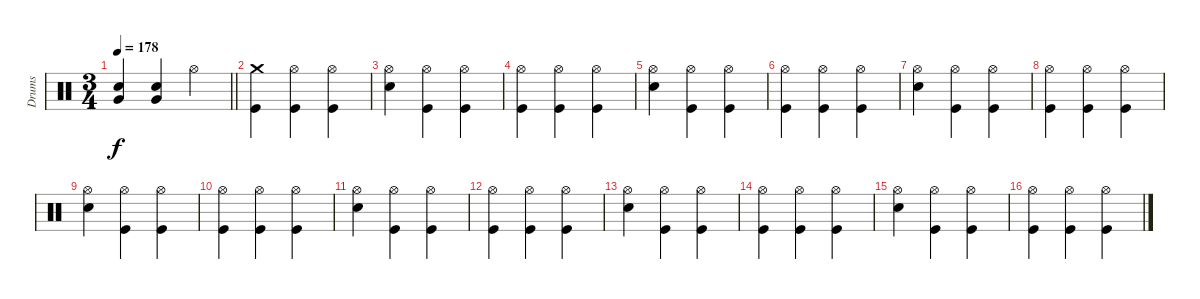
\track ("Drums" "Drums") {instrument percussion}
\staff {score}
\articulation defaults
\ts (3 4)
\tempo 178
\clef neutral
\barLineRight lightlight
\ks c
("Very Low Tom (hit)" "Snare (hit) 2").4{dy f} ("Very Low Tom (hit)" "Snare (hit) 2").4 "Hi-Hat (open)".4 |
("Kick (hit)" "Crash medium (hit)").4 ("Kick (hit)" "Hi-Hat (open)").4 ("Kick (hit)" "Hi-Hat (open)").4 |
("Snare (hit) 2" "Hi-Hat (open)").4 ("Kick (hit)" "Hi-Hat (open)").4 ("Kick (hit)" "Hi-Hat (open)").4 |
("Kick (hit)" "Hi-Hat (open)").4 ("Kick (hit)" "Hi-Hat (open)").4 ("Kick (hit)" "Hi-Hat (open)").4 |
("Snare (hit) 2" "Hi-Hat (open)").4 ("Kick (hit)" "Hi-Hat (open)").4 ("Kick (hit)" "Hi-Hat (open)").4 |
("Kick (hit)" "Hi-Hat (open)").4 ("Kick (hit)" "Hi-Hat (open)").4 ("Kick (hit)" "Hi-Hat (open)").4 |
("Snare (hit) 2" "Hi-Hat (open)").4 ("Kick (hit)" "Hi-Hat (open)").4 ("Kick (hit)" "Hi-Hat (open)").4 |
("Kick (hit)" "Hi-Hat (open)").4 ("Kick (hit)" "Hi-Hat (open)").4 ("Kick (hit)" "Hi-Hat (open)").4 |
("Snare (hit) 2" "Hi-Hat (open)").4 ("Kick (hit)" "Hi-Hat (open)").4 ("Kick (hit)" "Hi-Hat (open)").4 |
("Kick (hit)" "Hi-Hat (open)").4 ("Kick (hit)" "Hi-Hat (open)").4 ("Kick (hit)" "Hi-Hat (open)").4 |
("Snare (hit) 2" "Hi-Hat (open)").4 ("Kick (hit)" "Hi-Hat (open)").4 ("Kick (hit)" "Hi-Hat (open)").4 |
("Kick (hit)" "Hi-Hat (open)").4 ("Kick (hit)" "Hi-Hat (open)").4 ("Kick (hit)" "Hi-Hat (open)").4 |
("Snare (hit) 2" "Hi-Hat (open)").4 ("Kick (hit)" "Hi-Hat (open)").4 ("Kick (hit)" "Hi-Hat (open)").4 |
("Kick (hit)" "Hi-Hat (open)").4 ("Kick (hit)" "Hi-Hat (open)").4 ("Kick (hit)" "Hi-Hat (open)").4 |
("Snare (hit) 2" "Hi-Hat (open)").4 ("Kick (hit)" "Hi-Hat (open)").4 ("Kick (hit)" "Hi-Hat (open)").4 |
("Kick (hit)" "Hi-Hat (open)").4 ("Kick (hit)" "Hi-Hat (open)").4 ("Kick (hit)" "Hi-Hat (open)").4
